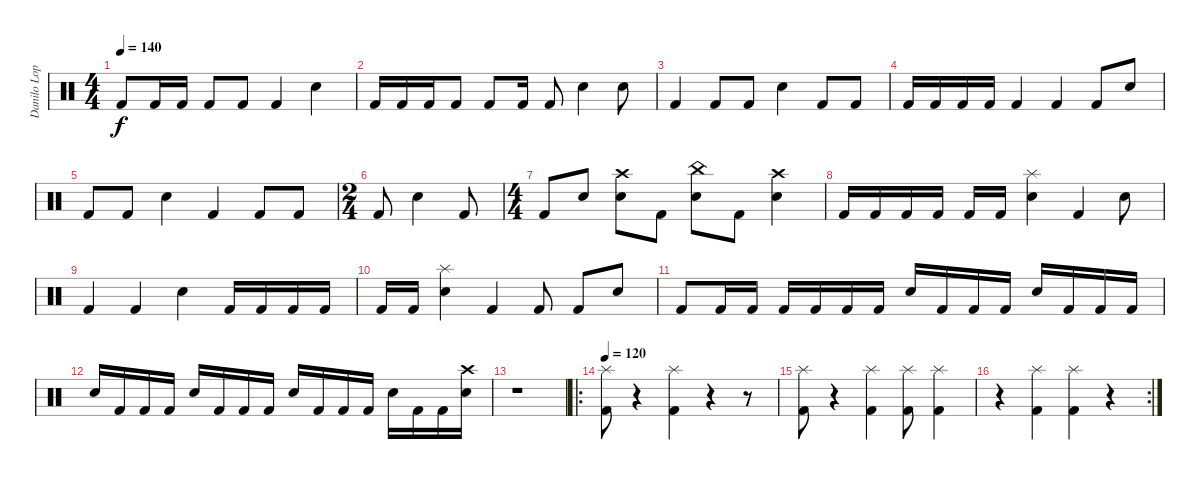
\track ("Danilo Lopes" "Danilo Lop") {instrument percussion}
\staff {score}
\articulation defaults
\ts (4 4)
\tempo 140
\clef neutral
\ks c "Kick (hit) 2".8{dy f} "Kick (hit) 2".16 "Kick (hit) 2".16 "Kick (hit) 2".8 "Kick (hit) 2".8 "Kick (hit) 2".4 "Snare (hit) 2".4
|
"Kick (hit) 2".16 "Kick (hit) 2".16 "Kick (hit) 2".16 "Kick (hit) 2".8 "Kick (hit) 2".8 "Kick (hit) 2".16 "Kick (hit) 2".8 "Snare (hit) 2".4 "Snare (hit) 2".8 |
"Kick (hit) 2".4 "Kick (hit) 2".8 "Kick (hit) 2".8 "Snare (hit) 2".4 "Kick (hit) 2".8 "Kick (hit) 2".8 |
"Kick (hit) 2".16 "Kick (hit) 2".16 "Kick (hit) 2".16 "Kick (hit) 2".16 "Kick (hit) 2".4 "Kick (hit) 2".4 "Kick (hit) 2".8 "Snare (hit) 2".8 |
"Kick (hit) 2".8 "Kick (hit) 2".8 "Snare (hit) 2".4 "Kick (hit) 2".4 "Kick (hit) 2".8 "Kick (hit) 2".8 |
\ts (2 4)
"Kick (hit) 2".8 "Snare (hit) 2".4 "Kick (hit) 2".8 |
\ts (4 4)
"Kick (hit) 2".8 "Snare (hit) 2".8 ("Crash high (hit)" "Snare (hit) 2").8 "Kick (hit) 2".8 ("China (hit)" "Snare (hit) 2").8 "Kick (hit) 2".8 ("Crash high (hit)" "Snare (hit) 2").4 |
"Kick (hit) 2".16 "Kick (hit) 2".16 "Kick (hit) 2".16 "Kick (hit) 2".16 "Kick (hit) 2".16 "Kick (hit) 2".16 ("Splash (hit)" "Snare (hit) 2").4 "Kick (hit) 2".4 "Snare (hit) 2".8 |
"Kick (hit) 2".4 "Kick (hit) 2".4 "Snare (hit) 2".4 "Kick (hit) 2".16 "Kick (hit) 2".16 "Kick (hit) 2".16 "Kick (hit) 2".16 |
"Kick (hit) 2".16 "Kick (hit) 2".16 ("Splash (hit)" "Snare (hit) 2").4 "Kick (hit) 2".4 "Kick (hit) 2".8 "Kick (hit) 2".8 "Snare (hit) 2".8 |
"Kick (hit) 2".8 "Kick (hit) 2".16 "Kick (hit) 2".16 "Kick (hit) 2".16 "Kick (hit) 2".16 "Kick (hit) 2".16 "Kick (hit) 2".16 "Snare (hit) 2".16 "Kick (hit) 2".16 "Kick (hit) 2".16 "Kick (hit) 2".16 "Snare (hit) 2".16 "Kick (hit) 2".16 "Kick (hit) 2".16 "Kick (hit) 2".16 |
"Snare (hit) 2".16 "Kick (hit) 2".16 "Kick (hit) 2".16 "Kick (hit) 2".16 "Snare (hit) 2".16 "Kick (hit) 2".16 "Kick (hit) 2".16 "Kick (hit) 2".16 "Snare (hit) 2".16 "Kick (hit) 2".16 "Kick (hit) 2".16 "Kick (hit) 2".16 "Snare (hit) 2".16 "Kick (hit) 2".16 "Kick (hit) 2".16 ("Snare (hit) 2" "Crash high (hit)").16 |
r.1 |
\ro
\tempo 120
("Splash (hit)" "Kick (hit) 2").8 r.4 ("Splash (hit)" "Kick (hit) 2").4 r.4 r.8 |
("Kick (hit) 2" "Splash (hit)").8 r.4 ("Kick (hit) 2" "Splash (hit)").4 ("Kick (hit) 2" "Splash (hit)").8 ("Kick (hit) 2" "Splash (hit)").4 |
\rc 2
r.4 ("Splash (hit)" "Kick (hit) 2").4 ("Splash (hit)" "Kick (hit) 2").4 r.4
